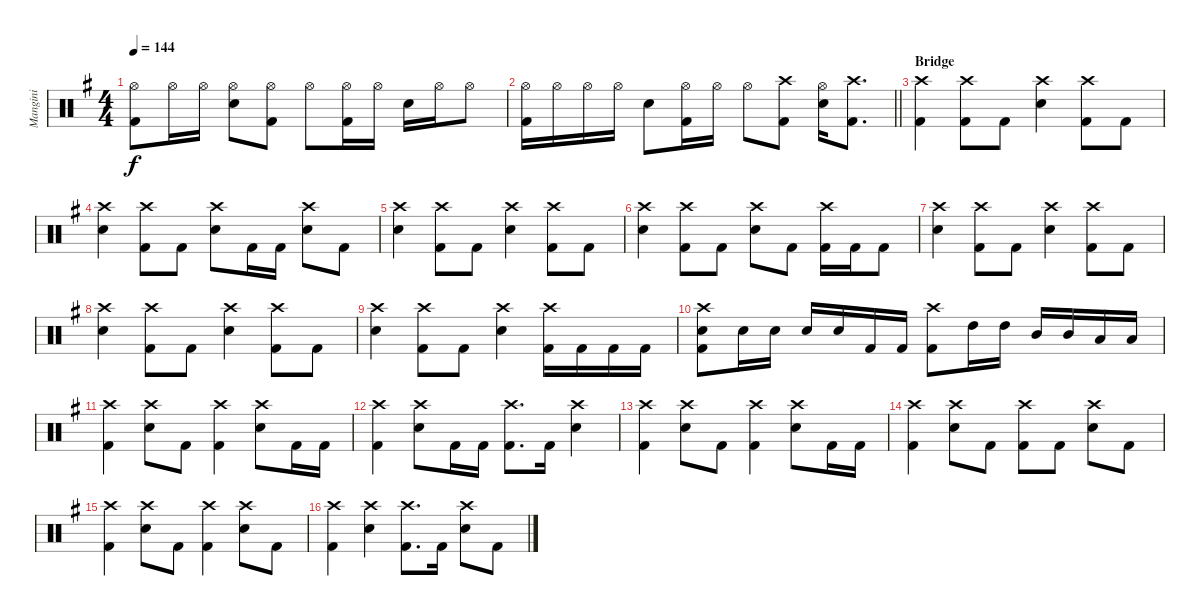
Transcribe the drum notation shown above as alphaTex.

\track ("Mangini" "Mangini") {instrument percussion}
\staff {score}
\articulation defaults
\ts (4 4)
\tempo 144
\clef neutral
\ks eminor
("Hi-Hat (open)" "Kick (hit) 2").8{dy f} "Hi-Hat (open)".16 "Hi-Hat (open)".16 ("Hi-Hat (open)" "Snare (hit) 2").8 ("Hi-Hat (open)" "Kick (hit) 2").8 "Hi-Hat (open)".8 ("Hi-Hat (open)" "Kick (hit) 2").16 "Hi-Hat (open)".16 "Snare (hit) 2".16 "Hi-Hat (open)".16 "Hi-Hat (open)".8 |
\barLineRight lightlight
("Hi-Hat (open)" "Kick (hit) 2").16 "Hi-Hat (open)".16 "Hi-Hat (open)".16 "Hi-Hat (open)".16 "Snare (hit) 2".8 ("Hi-Hat (open)" "Kick (hit) 2").16 "Hi-Hat (open)".16 "Hi-Hat (open)".8 ("Crash high (hit)" "Kick (hit) 2").8 ("Hi-Hat (open)" "Snare (hit) 2").16 ("Crash high (hit)" "Kick (hit) 2").8{d} |
\section ("" "Bridge")
("Crash high (hit)" "Kick (hit) 2").4 ("Crash high (hit)" "Kick (hit) 2").8 "Kick (hit) 2".8 ("Crash high (hit)" "Snare (hit) 2").4 ("Crash high (hit)" "Kick (hit) 2").8 "Kick (hit) 2".8 |
("Crash high (hit)" "Snare (hit) 2").4 ("Crash high (hit)" "Kick (hit) 2").8 "Kick (hit) 2".8 ("Crash high (hit)" "Snare (hit) 2").8 "Kick (hit) 2".16 "Kick (hit) 2".16 ("Crash high (hit)" "Snare (hit) 2").8 "Kick (hit) 2".8 |
("Crash high (hit)" "Snare (hit) 2").4 ("Crash high (hit)" "Kick (hit) 2").8 "Kick (hit) 2".8 ("Crash high (hit)" "Snare (hit) 2").4 ("Crash high (hit)" "Kick (hit) 2").8 "Kick (hit) 2".8 |
("Crash high (hit)" "Snare (hit) 2").4 ("Crash high (hit)" "Kick (hit) 2").8 "Kick (hit) 2".8 ("Crash high (hit)" "Snare (hit) 2").8 "Kick (hit) 2".8 ("Crash high (hit)" "Kick (hit) 2").16 "Kick (hit) 2".16 "Kick (hit) 2".8 |
("Crash high (hit)" "Snare (hit) 2").4 ("Crash high (hit)" "Kick (hit) 2").8 "Kick (hit) 2".8 ("Crash high (hit)" "Snare (hit) 2").4 ("Crash high (hit)" "Kick (hit) 2").8 "Kick (hit) 2".8 |
("Crash high (hit)" "Snare (hit) 2").4 ("Crash high (hit)" "Kick (hit) 2").8 "Kick (hit) 2".8 ("Crash high (hit)" "Snare (hit) 2").4 ("Crash high (hit)" "Kick (hit) 2").8 "Kick (hit) 2".8 |
("Crash high (hit)" "Snare (hit) 2").4 ("Crash high (hit)" "Kick (hit) 2").8 "Kick (hit) 2".8 ("Crash high (hit)" "Snare (hit) 2").4 ("Crash high (hit)" "Kick (hit) 2").16 "Kick (hit) 2".16 "Kick (hit) 2".16 "Kick (hit) 2".16 |
("Crash high (hit)" "Snare (hit) 2" "Kick (hit) 2").8 "Snare (hit) 2".16 "Snare (hit) 2".16 "Snare (hit) 2".16 "Snare (hit) 2".16 "Kick (hit) 2".16 "Kick (hit) 2".16 ("Crash high (hit)" "Kick (hit) 2").8 "High Tom (hit)".16 "High Tom (hit)".16 "Mid Tom (hit)".16 "Mid Tom (hit)".16 "Low Tom (hit)".16 "Low Tom (hit)".16 |
("Crash high (hit)" "Kick (hit) 2").4 ("Crash high (hit)" "Snare (hit) 2").8 "Kick (hit) 2".8 ("Crash high (hit)" "Kick (hit) 2").4 ("Crash high (hit)" "Snare (hit) 2").8 "Kick (hit) 2".16 "Kick (hit) 2".16 |
("Crash high (hit)" "Kick (hit) 2").4 ("Crash high (hit)" "Snare (hit) 2").8 "Kick (hit) 2".16 "Kick (hit) 2".16 ("Crash high (hit)" "Kick (hit) 2").8{d} "Kick (hit) 2".16 ("Crash high (hit)" "Snare (hit) 2").4 |
("Crash high (hit)" "Kick (hit) 2").4 ("Crash high (hit)" "Snare (hit) 2").8 "Kick (hit) 2".8 ("Crash high (hit)" "Kick (hit) 2").4 ("Crash high (hit)" "Snare (hit) 2").8 "Kick (hit) 2".16 "Kick (hit) 2".16 |
("Crash high (hit)" "Kick (hit) 2").4 ("Crash high (hit)" "Snare (hit) 2").8 "Kick (hit) 2".8 ("Crash high (hit)" "Kick (hit) 2").8 "Kick (hit) 2".8 ("Crash high (hit)" "Snare (hit) 2").8 "Kick (hit) 2".8 |
("Crash high (hit)" "Kick (hit) 2").4 ("Crash high (hit)" "Snare (hit) 2").8 "Kick (hit) 2".8 ("Crash high (hit)" "Kick (hit) 2").4 ("Crash high (hit)" "Snare (hit) 2").8 "Kick (hit) 2".8 |
("Crash high (hit)" "Kick (hit) 2").4 ("Crash high (hit)" "Snare (hit) 2").4 ("Crash high (hit)" "Kick (hit) 2").8{d} "Kick (hit) 2".16 ("Crash high (hit)" "Snare (hit) 2").8 "Kick (hit) 2".8
